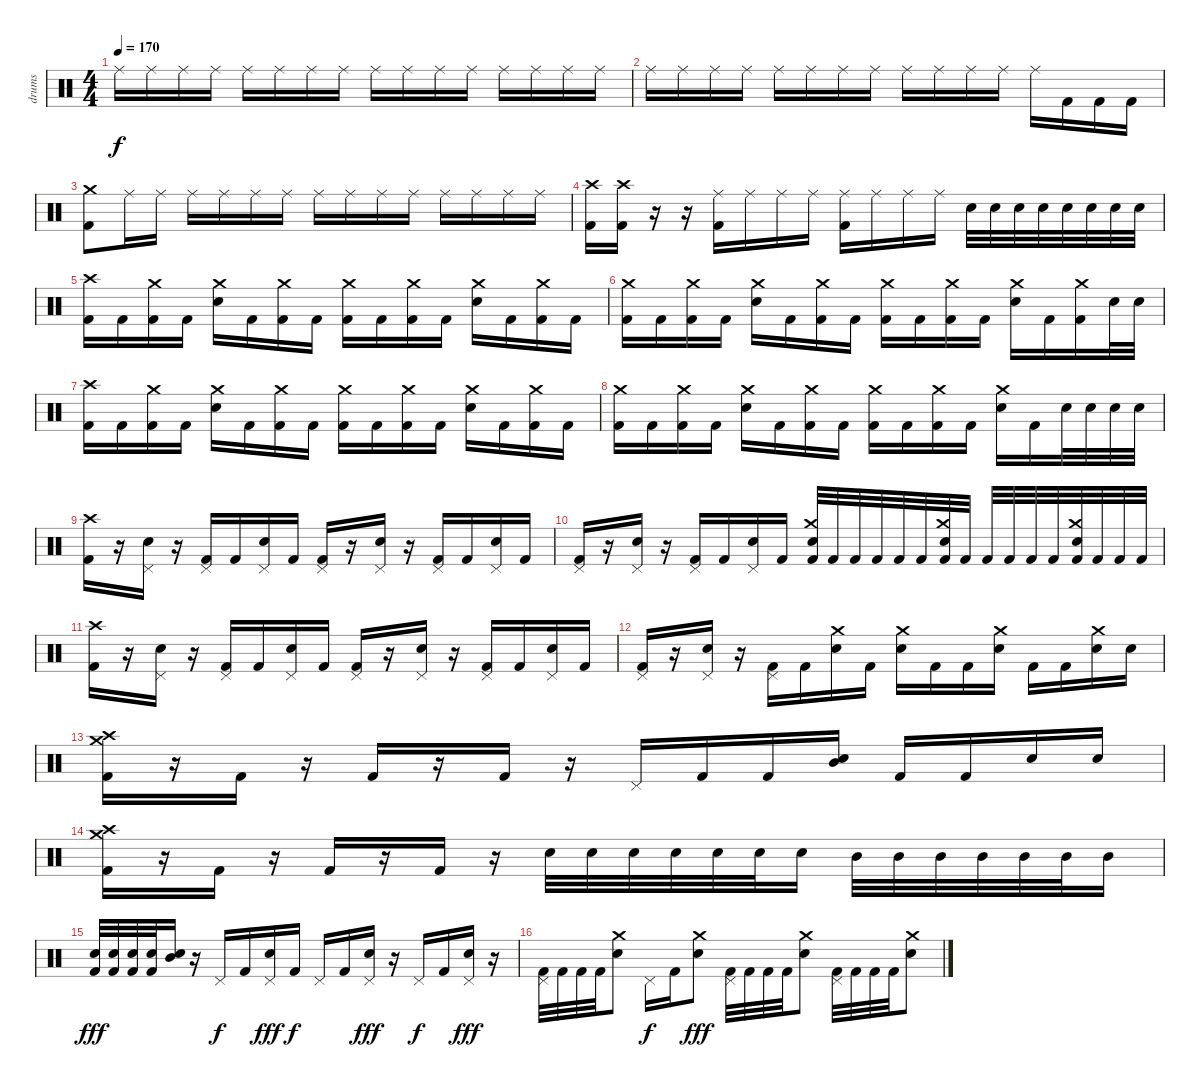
\track ("drums" "drums") {instrument percussion}
\staff {score}
\articulation defaults
\ts (4 4)
\tempo 170
\tempo 96
\tempo 170
\clef neutral
\ks c "Ride (middle)".16{dy f} "Ride (middle)".16 "Ride (middle)".16 "Ride (middle)".16 "Ride (middle)".16 "Ride (middle)".16 "Ride (middle)".16 "Ride (middle)".16 "Ride (middle)".16 "Ride (middle)".16 "Ride (middle)".16 "Ride (middle)".16 "Ride (middle)".16 "Ride (middle)".16 "Ride (middle)".16 "Ride (middle)".16
|
"Ride (middle)".16 "Ride (middle)".16 "Ride (middle)".16 "Ride (middle)".16 "Ride (middle)".16 "Ride (middle)".16 "Ride (middle)".16 "Ride (middle)".16 "Ride (middle)".16 "Ride (middle)".16 "Ride (middle)".16 "Ride (middle)".16 "Ride (middle)".16 "Kick (hit) 2".16 "Kick (hit) 2".16 "Kick (hit) 2".16 |
("Crash medium (hit)" "Kick (hit) 2").8 "Ride (middle)".16 "Ride (middle)".16 "Ride (middle)".16 "Ride (middle)".16 "Ride (middle)".16 "Ride (middle)".16 "Ride (middle)".16 "Ride (middle)".16 "Ride (middle)".16 "Ride (middle)".16 "Ride (middle)".16 "Ride (middle)".16 "Ride (middle)".16 "Ride (middle)".16 |
("Kick (hit) 2" "Crash high (hit)").16 ("Kick (hit) 2" "Crash high (hit)").16 r.16 r.16 ("Ride (middle)" "Kick (hit) 2").16 "Ride (middle)".16 "Ride (middle)".16 "Ride (middle)".16 ("Ride (middle)" "Kick (hit) 2").16 "Ride (middle)".16 "Ride (middle)".16 "Ride (middle)".16 "Snare (hit) 2".32 "Snare (hit) 2".32 "Snare (hit) 2".32 "Snare (hit) 2".32 "Snare (hit) 2".32 "Snare (hit) 2".32 "Snare (hit) 2".32 "Snare (hit) 2".32 |
("Kick (hit) 2" "Crash high (hit)").16 "Kick (hit) 2".16 ("Kick (hit) 2" "Crash medium (hit)").16 "Kick (hit) 2".16 ("Crash medium (hit)" "Snare (hit) 2").16 "Kick (hit) 2".16 ("Kick (hit) 2" "Crash medium (hit)").16 "Kick (hit) 2".16 ("Kick (hit) 2" "Crash medium (hit)").16 "Kick (hit) 2".16 ("Kick (hit) 2" "Crash medium (hit)").16 "Kick (hit) 2".16 ("Crash medium (hit)" "Snare (hit) 2").16 "Kick (hit) 2".16 ("Kick (hit) 2" "Crash medium (hit)").16 "Kick (hit) 2".16 |
("Kick (hit) 2" "Crash medium (hit)").16 "Kick (hit) 2".16 ("Kick (hit) 2" "Crash medium (hit)").16 "Kick (hit) 2".16 ("Crash medium (hit)" "Snare (hit) 2").16 "Kick (hit) 2".16 ("Kick (hit) 2" "Crash medium (hit)").16 "Kick (hit) 2".16 ("Kick (hit) 2" "Crash medium (hit)").16 "Kick (hit) 2".16 ("Kick (hit) 2" "Crash medium (hit)").16 "Kick (hit) 2".16 ("Crash medium (hit)" "Snare (hit) 2").16 "Kick (hit) 2".16 ("Kick (hit) 2" "Crash medium (hit)").16 "Snare (hit) 2".32 "Snare (hit) 2".32 |
("Kick (hit) 2" "Crash high (hit)").16 "Kick (hit) 2".16 ("Kick (hit) 2" "Crash medium (hit)").16 "Kick (hit) 2".16 ("Crash medium (hit)" "Snare (hit) 2").16 "Kick (hit) 2".16 ("Kick (hit) 2" "Crash medium (hit)").16 "Kick (hit) 2".16 ("Kick (hit) 2" "Crash medium (hit)").16 "Kick (hit) 2".16 ("Kick (hit) 2" "Crash medium (hit)").16 "Kick (hit) 2".16 ("Crash medium (hit)" "Snare (hit) 2").16 "Kick (hit) 2".16 ("Kick (hit) 2" "Crash medium (hit)").16 "Kick (hit) 2".16 |
("Kick (hit) 2" "Crash medium (hit)").16 "Kick (hit) 2".16 ("Kick (hit) 2" "Crash medium (hit)").16 "Kick (hit) 2".16 ("Crash medium (hit)" "Snare (hit) 2").16 "Kick (hit) 2".16 ("Kick (hit) 2" "Crash medium (hit)").16 "Kick (hit) 2".16 ("Kick (hit) 2" "Crash medium (hit)").16 "Kick (hit) 2".16 ("Kick (hit) 2" "Crash medium (hit)").16 "Kick (hit) 2".16 ("Crash medium (hit)" "Snare (hit) 2").16 "Kick (hit) 2".16 "Snare (hit) 2".32 "Snare (hit) 2".32 "Snare (hit) 2".32 "Snare (hit) 2".32 |
("Kick (hit) 2" "Crash high (hit)").16 r.16 ("Pedal Hi-Hat (hit)" "Snare (hit) 2").16 r.16 ("Kick (hit) 2" "Pedal Hi-Hat (hit)").16 "Kick (hit) 2".16 ("Pedal Hi-Hat (hit)" "Snare (hit) 2").16 "Kick (hit) 2".16 ("Kick (hit) 2" "Pedal Hi-Hat (hit)").16 r.16 ("Pedal Hi-Hat (hit)" "Snare (hit) 2").16 r.16 ("Kick (hit) 2" "Pedal Hi-Hat (hit)").16 "Kick (hit) 2".16 ("Pedal Hi-Hat (hit)" "Snare (hit) 2").16 "Kick (hit) 2".16 |
("Kick (hit) 2" "Pedal Hi-Hat (hit)").16 r.16 ("Pedal Hi-Hat (hit)" "Snare (hit) 2").16 r.16 ("Kick (hit) 2" "Pedal Hi-Hat (hit)").16 "Kick (hit) 2".16 ("Pedal Hi-Hat (hit)" "Snare (hit) 2").16 "Kick (hit) 2".16 ("Kick (hit) 2" "Crash medium (hit)" "Snare (hit) 2").32 "Kick (hit) 2".32 "Kick (hit) 2".32 "Kick (hit) 2".32 "Kick (hit) 2".32 "Kick (hit) 2".32 ("Kick (hit) 2" "Crash medium (hit)" "Snare (hit) 2").32 "Kick (hit) 2".32 "Kick (hit) 2".32 "Kick (hit) 2".32 "Kick (hit) 2".32 "Kick (hit) 2".32 ("Kick (hit) 2" "Crash medium (hit)" "Snare (hit) 2").32 "Kick (hit) 2".32 "Kick (hit) 2".32 "Kick (hit) 2".32 |
("Kick (hit) 2" "Crash high (hit)").16 r.16 ("Pedal Hi-Hat (hit)" "Snare (hit) 2").16 r.16 ("Kick (hit) 2" "Pedal Hi-Hat (hit)").16 "Kick (hit) 2".16 ("Pedal Hi-Hat (hit)" "Snare (hit) 2").16 "Kick (hit) 2".16 ("Kick (hit) 2" "Pedal Hi-Hat (hit)").16 r.16 ("Pedal Hi-Hat (hit)" "Snare (hit) 2").16 r.16 ("Kick (hit) 2" "Pedal Hi-Hat (hit)").16 "Kick (hit) 2".16 ("Pedal Hi-Hat (hit)" "Snare (hit) 2").16 "Kick (hit) 2".16 |
("Kick (hit) 2" "Pedal Hi-Hat (hit)").16 r.16 ("Pedal Hi-Hat (hit)" "Snare (hit) 2").16 r.16 ("Kick (hit) 2" "Pedal Hi-Hat (hit)").16 "Kick (hit) 2".16 ("Crash medium (hit)" "Snare (hit) 2").16 "Kick (hit) 2".16 ("Crash medium (hit)" "Snare (hit) 2").16 "Kick (hit) 2".16 "Kick (hit) 2".16 ("Crash medium (hit)" "Snare (hit) 2").16 "Kick (hit) 2".16 "Kick (hit) 2".16 ("Crash medium (hit)" "Snare (hit) 2").16 "Snare (hit) 2".16 |
("Kick (hit) 2" "Crash medium (hit)" "Crash high (hit)").16 r.16 "Kick (hit) 2".16 r.16 "Kick (hit) 2".16 r.16 "Kick (hit) 2".16 r.16 "Pedal Hi-Hat (hit)".16 "Kick (hit) 2".16 "Kick (hit) 2".16 ("Mid Tom (hit)" "Snare (hit) 2").16 "Kick (hit) 2".16 "Kick (hit) 2".16 "Snare (hit) 2".16 "Snare (hit) 2".16 |
("Kick (hit) 2" "Crash medium (hit)" "Crash high (hit)").16 r.16 "Kick (hit) 2".16 r.16 "Kick (hit) 2".16 r.16 "Kick (hit) 2".16 r.16 "Snare (hit) 2".32 "Snare (hit) 2".32 "Snare (hit) 2".32 "Snare (hit) 2".32 "Snare (hit) 2".32 "Snare (hit) 2".32 "Snare (hit) 2".16 "Mid Tom (hit)".32 "Mid Tom (hit)".32 "Mid Tom (hit)".32 "Mid Tom (hit)".32 "Mid Tom (hit)".32 "Mid Tom (hit)".32 "Mid Tom (hit)".16 |
("Kick (hit) 2" "Snare (hit) 2").32{dy fff} ("Kick (hit) 2" "Snare (hit) 2").32 ("Kick (hit) 2" "Snare (hit) 2").32 ("Kick (hit) 2" "Snare (hit) 2").32 ("Mid Tom (hit)" "Snare (hit) 2").16 r.16 "Pedal Hi-Hat (hit)".16{dy f} "Kick (hit) 2".16 ("Pedal Hi-Hat (hit)" "Snare (hit) 2").16{dy fff} "Kick (hit) 2".16{dy f} "Pedal Hi-Hat (hit)".16 "Kick (hit) 2".16 ("Pedal Hi-Hat (hit)" "Snare (hit) 2").16{dy fff} r.16 "Pedal Hi-Hat (hit)".16{dy f} "Kick (hit) 2".16 ("Pedal Hi-Hat (hit)" "Snare (hit) 2").16{dy fff} r.16 |
("Kick (hit) 2" "Pedal Hi-Hat (hit)").32 "Kick (hit) 2".32 "Kick (hit) 2".32 "Kick (hit) 2".32 ("Crash medium (hit)" "Snare (hit) 2").8 "Pedal Hi-Hat (hit)".16{dy f} "Kick (hit) 2".16 ("Crash medium (hit)" "Snare (hit) 2").8{dy fff} ("Kick (hit) 2" "Pedal Hi-Hat (hit)").32 "Kick (hit) 2".32 "Kick (hit) 2".32 "Kick (hit) 2".32 ("Crash medium (hit)" "Snare (hit) 2").8 ("Kick (hit) 2" "Pedal Hi-Hat (hit)").32 "Kick (hit) 2".32 "Kick (hit) 2".32 "Kick (hit) 2".32 ("Crash medium (hit)" "Snare (hit) 2").8
